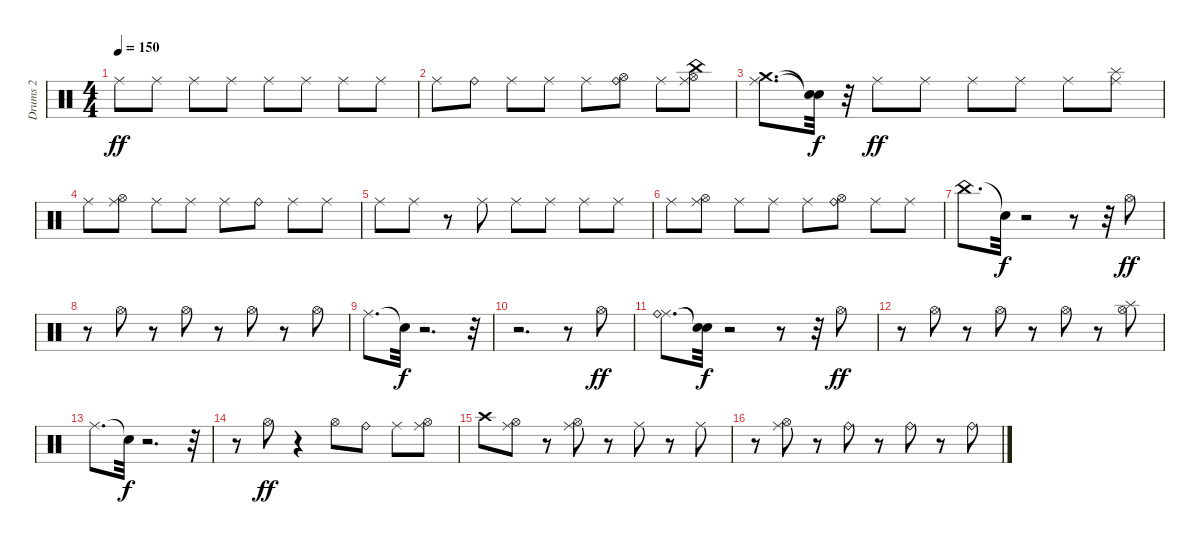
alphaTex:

\track ("Drums 2" "Drums 2") {instrument percussion}
\staff {score}
\articulation defaults
\ts (4 4)
\tempo 150
\clef neutral
\ks c "Ride (middle)".8{dy ff} "Ride (middle)".8 "Ride (middle)".8 "Ride (middle)".8 "Ride (middle)".8 "Ride (middle)".8 "Ride (middle)".8 "Ride (middle)".8
|
"Ride (middle)".8 "Ride (bell)".8 "Ride (middle)".8 "Ride (middle)".8 "Ride (middle)".8 ("Hi-Hat (open)" "Ride (bell)").8 "Ride (middle)".8 ("Hi-Hat (open)" "Ride (middle)" "China (hit)").8 |
("Ride (middle)" "Crash medium (hit)").8{d} ("Snare (hit)"{t} "Snare (hit)"{t}).32{dy f} r.32 "Ride (middle)".8{dy ff} "Ride (middle)".8 "Ride (middle)".8 "Ride (middle)".8 "Ride (middle)".8 ("Ride (middle)" "Splash (hit)").8 |
"Ride (middle)".8 ("Hi-Hat (open)" "Ride (middle)").8 "Ride (middle)".8 "Ride (middle)".8 "Ride (middle)".8 "Ride (bell)".8 "Ride (middle)".8 "Ride (middle)".8 |
"Ride (middle)".8 "Ride (middle)".8 r.8 "Ride (middle)".8 "Ride (middle)".8 "Ride (middle)".8 "Ride (middle)".8 "Ride (middle)".8 |
"Ride (middle)".8 ("Hi-Hat (open)" "Ride (middle)").8 "Ride (middle)".8 "Ride (middle)".8 "Ride (middle)".8 ("Hi-Hat (open)" "Ride (bell)").8 "Ride (middle)".8 "Ride (middle)".8 |
"China (hit)".8{d} "Snare (hit)"{t}.32{dy f} r.2 r.8 r.32 "Hi-Hat (open)".8{dy ff} |
r.8 "Hi-Hat (open)".8 r.8 "Hi-Hat (open)".8 r.8 "Hi-Hat (open)".8 r.8 "Hi-Hat (open)".8 |
"Ride (middle)".8{d} "Snare (hit)"{t}.32{dy f} r.2{d} r.32 |
r.2{d} r.8 "Hi-Hat (open)".8{dy ff} |
("Ride (middle)" "Ride (bell)").8{d} ("Snare (hit)"{t} "Snare (hit)"{t}).32{dy f} r.2 r.8 r.32 "Hi-Hat (open)".8{dy ff} |
r.8 "Hi-Hat (open)".8 r.8 "Hi-Hat (open)".8 r.8 "Hi-Hat (open)".8 r.8 ("Hi-Hat (open)" "Splash (hit)").8 |
"Ride (middle)".8{d} "Snare (hit)"{t}.32{dy f} r.2{d} r.32 |
r.8 "Hi-Hat (open)".8{dy ff} r.4 "Hi-Hat (open)".8 "Ride (bell)".8 "Ride (middle)".8 ("Hi-Hat (open)" "Ride (middle)").8 |
"Crash high (hit)".8 ("Hi-Hat (open)" "Ride (middle)").8 r.8 ("Hi-Hat (open)" "Ride (middle)").8 r.8 "Ride (middle)".8 r.8 "Ride (middle)".8 |
r.8 ("Hi-Hat (open)" "Ride (middle)").8 r.8 "Ride (bell)".8 r.8 "Ride (bell)".8 r.8 "Ride (bell)".8
